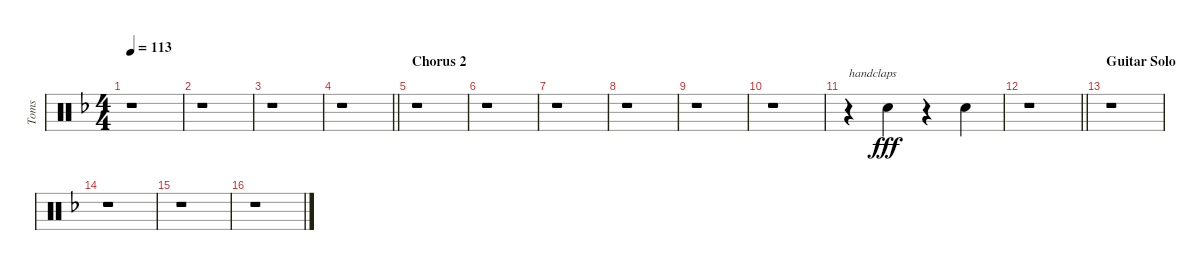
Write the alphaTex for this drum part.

\track ("Toms" "Toms") {instrument percussion}
\staff {score}
\articulation defaults
\ts (4 4)
\tempo 113
\clef neutral
\ks dminor
r.1{dy f} |
r.1 |
r.1 |
\barLineRight lightlight
r.1 |
\section ("" "Chorus 2")
r.1 |
r.1 |
r.1 |
r.1 |
r.1 |
r.1 |
r.4{txt "handclaps"} "Hand Clap (hit)".4{dy fff} r.4 "Hand Clap (hit)".4 |
\barLineRight lightlight
r.1 |
\section ("" "Guitar Solo")
r.1 |
r.1 |
r.1 |
r.1
